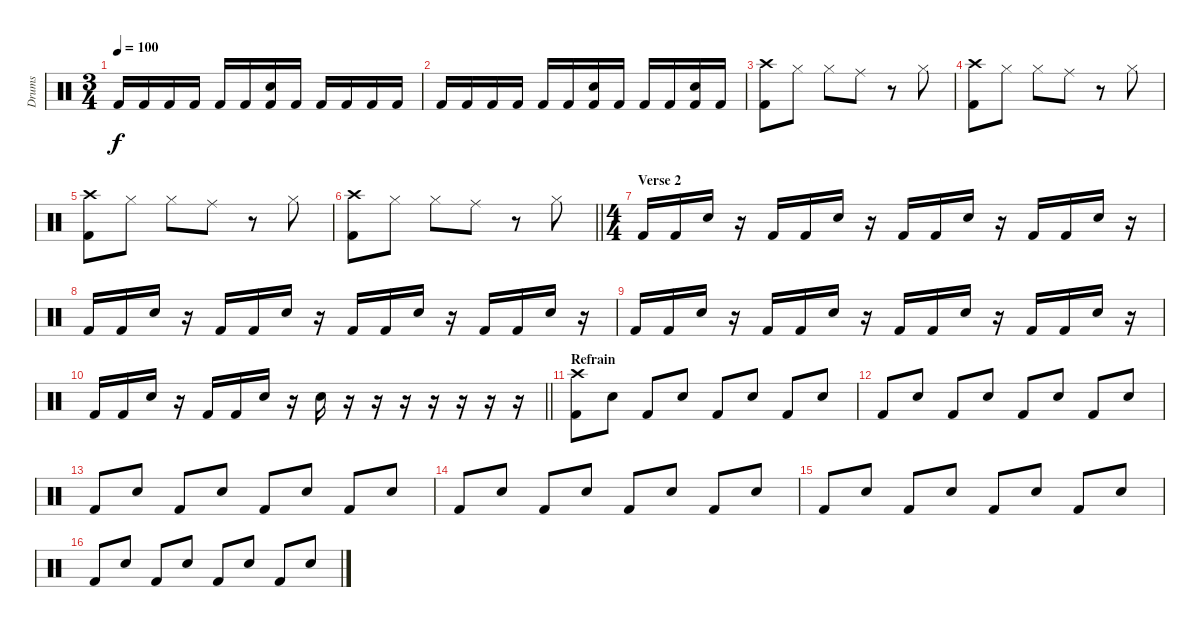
\track ("Drums" "Drums") {instrument percussion}
\staff {score}
\articulation defaults
\ts (3 4)
\tempo 100
\clef neutral
\ks c "Kick (hit) 2".16{dy f} "Kick (hit) 2".16 "Kick (hit) 2".16 "Kick (hit) 2".16 "Kick (hit) 2".16 "Kick (hit) 2".16
("Snare (hit) 2" "Kick (hit) 2").16 "Kick (hit) 2".16 "Kick (hit) 2".16 "Kick (hit) 2".16 "Kick (hit) 2".16 "Kick (hit) 2".16 |
"Kick (hit) 2".16 "Kick (hit) 2".16 "Kick (hit) 2".16 "Kick (hit) 2".16 "Kick (hit) 2".16 "Kick (hit) 2".16 ("Snare (hit) 2" "Kick (hit) 2").16 "Kick (hit) 2".16 "Kick (hit) 2".16 "Kick (hit) 2".16 ("Snare (hit) 2" "Kick (hit) 2").16 "Kick (hit) 2".16 |
("Crash high (hit)" "Kick (hit) 2").8 "Hi-Hat (closed)".8 "Hi-Hat (closed)".8 "Ride (middle)".8 r.8 "Hi-Hat (closed)".8 |
("Crash high (hit)" "Kick (hit) 2").8 "Hi-Hat (closed)".8 "Hi-Hat (closed)".8 "Ride (middle)".8 r.8 "Hi-Hat (closed)".8 |
("Crash high (hit)" "Kick (hit) 2").8 "Hi-Hat (closed)".8 "Hi-Hat (closed)".8 "Ride (middle)".8 r.8 "Hi-Hat (closed)".8 |
\barLineRight lightlight
("Crash high (hit)" "Kick (hit) 2").8 "Hi-Hat (closed)".8 "Hi-Hat (closed)".8 "Ride (middle)".8 r.8 "Hi-Hat (closed)".8 |
\ts (4 4)
\section ("" "Verse 2")
"Kick (hit) 2".16 "Kick (hit) 2".16 "Snare (hit) 2".16 r.16 "Kick (hit) 2".16 "Kick (hit) 2".16 "Snare (hit) 2".16 r.16 "Kick (hit) 2".16 "Kick (hit) 2".16 "Snare (hit) 2".16 r.16 "Kick (hit) 2".16 "Kick (hit) 2".16 "Snare (hit) 2".16 r.16 |
"Kick (hit) 2".16 "Kick (hit) 2".16 "Snare (hit) 2".16 r.16 "Kick (hit) 2".16 "Kick (hit) 2".16 "Snare (hit) 2".16 r.16 "Kick (hit) 2".16 "Kick (hit) 2".16 "Snare (hit) 2".16 r.16 "Kick (hit) 2".16 "Kick (hit) 2".16 "Snare (hit) 2".16 r.16 |
"Kick (hit) 2".16 "Kick (hit) 2".16 "Snare (hit) 2".16 r.16 "Kick (hit) 2".16 "Kick (hit) 2".16 "Snare (hit) 2".16 r.16 "Kick (hit) 2".16 "Kick (hit) 2".16 "Snare (hit) 2".16 r.16 "Kick (hit) 2".16 "Kick (hit) 2".16 "Snare (hit) 2".16 r.16 |
\barLineRight lightlight "Kick (hit) 2".16 "Kick (hit) 2".16 "Snare (hit) 2".16
r.16 "Kick (hit) 2".16 "Kick (hit) 2".16 "Snare (hit) 2".16 r.16 "Snare (hit) 2".16 r.16 r.16 r.16 r.16 r.16 r.16 r.16 |
\section ("" "Refrain")
("Crash high (hit)" "Kick (hit) 2").8 "Snare (hit) 2".8 "Kick (hit) 2".8 "Snare (hit) 2".8 "Kick (hit) 2".8 "Snare (hit) 2".8 "Kick (hit) 2".8 "Snare (hit) 2".8 |
"Kick (hit) 2".8 "Snare (hit) 2".8 "Kick (hit) 2".8 "Snare (hit) 2".8 "Kick (hit) 2".8 "Snare (hit) 2".8 "Kick (hit) 2".8 "Snare (hit) 2".8 |
"Kick (hit) 2".8 "Snare (hit) 2".8 "Kick (hit) 2".8 "Snare (hit) 2".8 "Kick (hit) 2".8 "Snare (hit) 2".8 "Kick (hit) 2".8 "Snare (hit) 2".8 |
"Kick (hit) 2".8 "Snare (hit) 2".8 "Kick (hit) 2".8 "Snare (hit) 2".8 "Kick (hit) 2".8 "Snare (hit) 2".8 "Kick (hit) 2".8 "Snare (hit) 2".8 |
"Kick (hit) 2".8 "Snare (hit) 2".8 "Kick (hit) 2".8 "Snare (hit) 2".8 "Kick (hit) 2".8 "Snare (hit) 2".8 "Kick (hit) 2".8 "Snare (hit) 2".8 |
"Kick (hit) 2".8 "Snare (hit) 2".8 "Kick (hit) 2".8 "Snare (hit) 2".8 "Kick (hit) 2".8 "Snare (hit) 2".8 "Kick (hit) 2".8 "Snare (hit) 2".8
